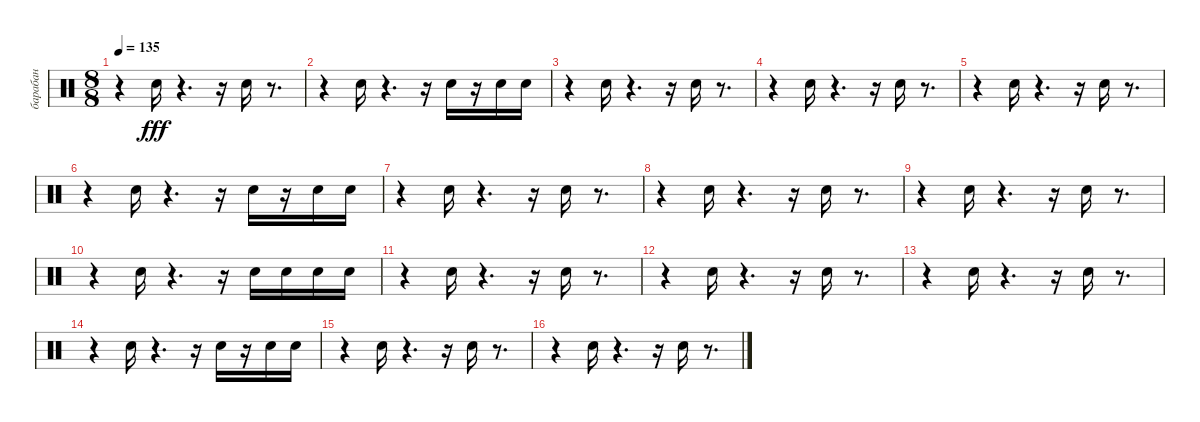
\track ("барабан" "барабан") {instrument percussion}
\staff {score}
\articulation defaults
\ts (8 8)
\tempo 135
\clef neutral
\ks c
r.4{dy fff} "Snare (hit) 2".16 r.4{d} r.16 "Snare (hit) 2".16 r.8{d} |
r.4 "Snare (hit) 2".16 r.4{d} r.16 "Snare (hit) 2".16 r.16 "Snare (hit) 2".16 "Snare (hit) 2".16 |
r.4 "Snare (hit) 2".16 r.4{d} r.16 "Snare (hit) 2".16 r.8{d} |
r.4 "Snare (hit) 2".16 r.4{d} r.16 "Snare (hit) 2".16 r.8{d} |
r.4 "Snare (hit) 2".16 r.4{d} r.16 "Snare (hit) 2".16 r.8{d} |
r.4 "Snare (hit) 2".16 r.4{d} r.16 "Snare (hit) 2".16 r.16 "Snare (hit) 2".16 "Snare (hit) 2".16 |
r.4 "Snare (hit) 2".16 r.4{d} r.16 "Snare (hit) 2".16 r.8{d} |
r.4 "Snare (hit) 2".16 r.4{d} r.16 "Snare (hit) 2".16 r.8{d} |
r.4 "Snare (hit) 2".16 r.4{d} r.16 "Snare (hit) 2".16 r.8{d} |
r.4 "Snare (hit) 2".16 r.4{d} r.16 "Snare (hit) 2".16 "Snare (hit) 2".16 "Snare (hit) 2".16 "Snare (hit) 2".16 |
r.4 "Snare (hit) 2".16 r.4{d} r.16 "Snare (hit) 2".16 r.8{d} |
r.4 "Snare (hit) 2".16 r.4{d} r.16 "Snare (hit) 2".16 r.8{d} |
r.4 "Snare (hit) 2".16 r.4{d} r.16 "Snare (hit) 2".16 r.8{d} |
r.4 "Snare (hit) 2".16 r.4{d} r.16 "Snare (hit) 2".16 r.16 "Snare (hit) 2".16 "Snare (hit) 2".16 |
r.4 "Snare (hit) 2".16 r.4{d} r.16 "Snare (hit) 2".16 r.8{d} |
r.4 "Snare (hit) 2".16 r.4{d} r.16 "Snare (hit) 2".16 r.8{d}
